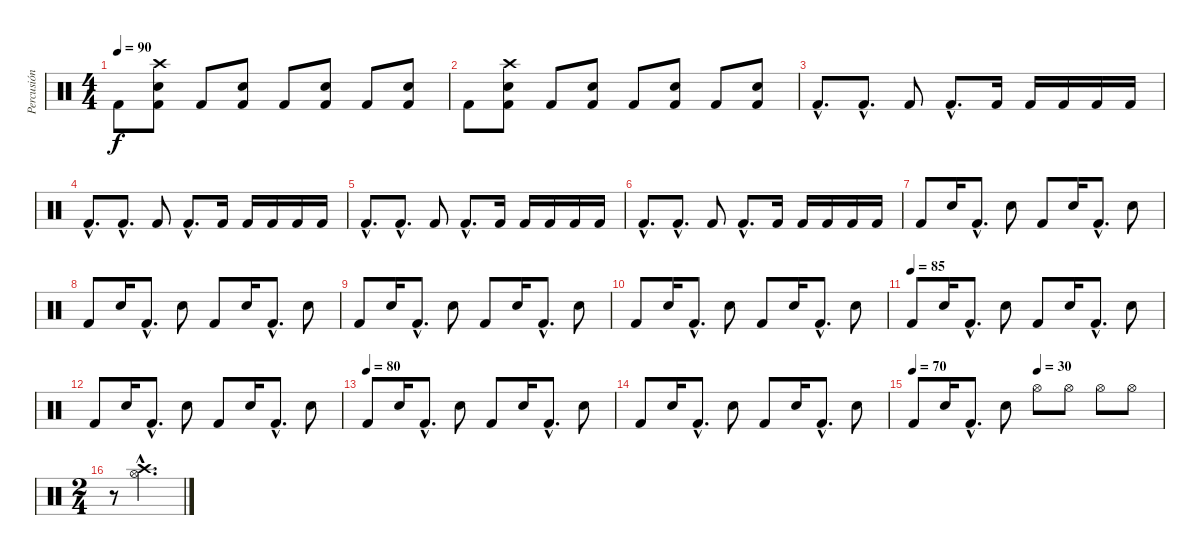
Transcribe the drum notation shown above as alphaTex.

\track ("Percusión" "Percusión") {instrument percussion}
\staff {score}
\articulation defaults
\ts (4 4)
\tempo 90
\clef neutral
\ks c "Kick (hit) 2".8{dy f}
("Electric Snare (hit)" "Kick (hit) 2" "Crash high (hit)").8 "Kick (hit) 2".8 ("Electric Snare (hit)" "Kick (hit) 2").8 "Kick (hit) 2".8 ("Electric Snare (hit)" "Kick (hit) 2").8 "Kick (hit) 2".8 ("Electric Snare (hit)" "Kick (hit) 2").8 |
"Kick (hit) 2".8 ("Electric Snare (hit)" "Kick (hit) 2" "Crash high (hit)").8 "Kick (hit) 2".8 ("Electric Snare (hit)" "Kick (hit) 2").8 "Kick (hit) 2".8 ("Electric Snare (hit)" "Kick (hit) 2").8 "Kick (hit) 2".8 ("Electric Snare (hit)" "Kick (hit) 2").8 |
"Kick (hit) 2"{hac}.8{d} "Kick (hit) 2"{hac}.8{d} "Kick (hit) 2".8 "Kick (hit) 2"{hac}.8{d} "Kick (hit) 2".16 "Kick (hit) 2".16 "Kick (hit) 2".16 "Kick (hit) 2".16 "Kick (hit) 2".16 |
"Kick (hit) 2"{hac}.8{d} "Kick (hit) 2"{hac}.8{d} "Kick (hit) 2".8 "Kick (hit) 2"{hac}.8{d} "Kick (hit) 2".16 "Kick (hit) 2".16 "Kick (hit) 2".16 "Kick (hit) 2".16 "Kick (hit) 2".16 |
"Kick (hit) 2"{hac}.8{d} "Kick (hit) 2"{hac}.8{d} "Kick (hit) 2".8 "Kick (hit) 2"{hac}.8{d} "Kick (hit) 2".16 "Kick (hit) 2".16 "Kick (hit) 2".16 "Kick (hit) 2".16 "Kick (hit) 2".16 |
"Kick (hit) 2"{hac}.8{d} "Kick (hit) 2"{hac}.8{d} "Kick (hit) 2".8 "Kick (hit) 2"{hac}.8{d} "Kick (hit) 2".16 "Kick (hit) 2".16 "Kick (hit) 2".16 "Kick (hit) 2".16 "Kick (hit) 2".16 |
"Kick (hit) 2".8 "Electric Snare (hit)".16 "Kick (hit) 2"{hac}.8{d} "Electric Snare (hit)".8 "Kick (hit) 2".8 "Electric Snare (hit)".16 "Kick (hit) 2"{hac}.8{d} "Electric Snare (hit)".8 |
"Kick (hit) 2".8 "Electric Snare (hit)".16 "Kick (hit) 2"{hac}.8{d} "Electric Snare (hit)".8 "Kick (hit) 2".8 "Electric Snare (hit)".16 "Kick (hit) 2"{hac}.8{d} "Electric Snare (hit)".8 |
"Kick (hit) 2".8 "Electric Snare (hit)".16 "Kick (hit) 2"{hac}.8{d} "Electric Snare (hit)".8 "Kick (hit) 2".8 "Electric Snare (hit)".16 "Kick (hit) 2"{hac}.8{d} "Electric Snare (hit)".8 |
"Kick (hit) 2".8 "Electric Snare (hit)".16 "Kick (hit) 2"{hac}.8{d} "Electric Snare (hit)".8 "Kick (hit) 2".8 "Electric Snare (hit)".16 "Kick (hit) 2"{hac}.8{d} "Electric Snare (hit)".8 |
\tempo (85)
"Kick (hit) 2".8 "Electric Snare (hit)".16 "Kick (hit) 2"{hac}.8{d} "Electric Snare (hit)".8 "Kick (hit) 2".8 "Electric Snare (hit)".16 "Kick (hit) 2"{hac}.8{d} "Electric Snare (hit)".8 |
"Kick (hit) 2".8 "Electric Snare (hit)".16 "Kick (hit) 2"{hac}.8{d} "Electric Snare (hit)".8 "Kick (hit) 2".8 "Electric Snare (hit)".16 "Kick (hit) 2"{hac}.8{d} "Electric Snare (hit)".8 |
\tempo (80)
"Kick (hit) 2".8 "Electric Snare (hit)".16 "Kick (hit) 2"{hac}.8{d} "Electric Snare (hit)".8 "Kick (hit) 2".8 "Electric Snare (hit)".16 "Kick (hit) 2"{hac}.8{d} "Electric Snare (hit)".8 |
"Kick (hit) 2".8 "Electric Snare (hit)".16 "Kick (hit) 2"{hac}.8{d} "Electric Snare (hit)".8 "Kick (hit) 2".8 "Electric Snare (hit)".16 "Kick (hit) 2"{hac}.8{d} "Electric Snare (hit)".8 |
\tempo 70
\tempo (30 0.5)
"Kick (hit) 2".8 "Electric Snare (hit)".16 "Kick (hit) 2"{hac}.8{d} "Electric Snare (hit)".8 "Hi-Hat (open)".8 "Hi-Hat (open)".8 "Hi-Hat (open)".8 "Hi-Hat (open)".8 |
\ts (2 4)
r.8 ("Crash high (hit)"{hac} "Hi-Hat (open)"{hac}).4{d}
